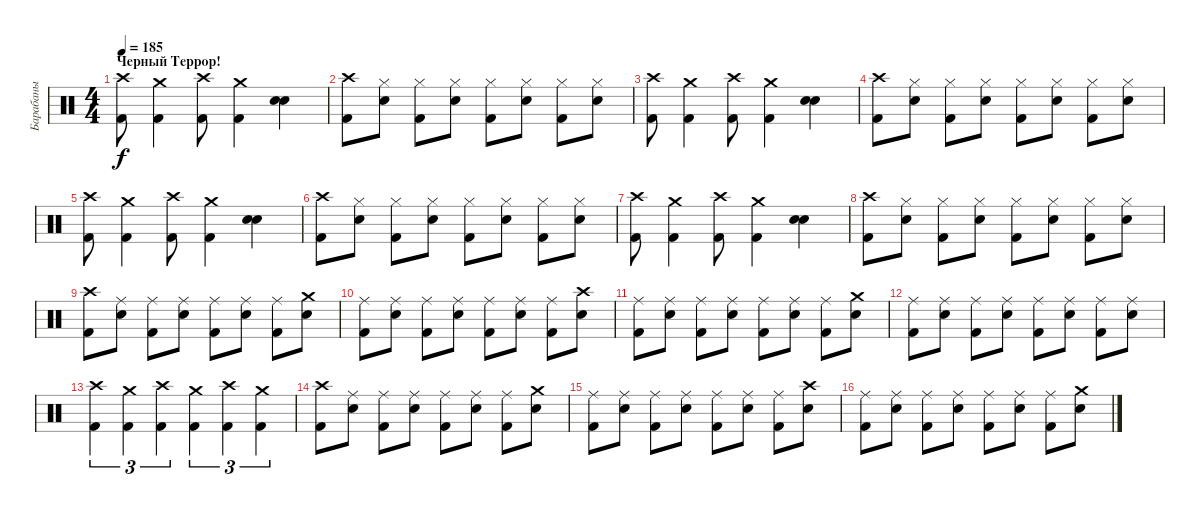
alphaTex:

\track ("Барабаны" "Барабаны") {instrument percussion}
\staff {score}
\articulation defaults
\ts (4 4)
\section ("" "Черный Террор!")
\tempo 185
\clef neutral
\ks c
("Crash high (hit)" "Kick (hit) 2").8{dy f} ("Crash medium (hit)" "Kick (hit) 2").4 ("Crash high (hit)" "Kick (hit) 2").8 ("Crash medium (hit)" "Kick (hit) 2").4 ("Snare (hit) 2" "Snare (hit) 2").4 |
("Crash high (hit)" "Kick (hit) 2").8 ("Hi-Hat (closed)" "Snare (hit) 2").8 ("Hi-Hat (closed)" "Kick (hit) 2").8 ("Hi-Hat (closed)" "Snare (hit) 2").8 ("Hi-Hat (closed)" "Kick (hit) 2").8 ("Hi-Hat (closed)" "Snare (hit) 2").8 ("Hi-Hat (closed)" "Kick (hit) 2").8 ("Hi-Hat (closed)" "Snare (hit) 2").8 |
("Crash high (hit)" "Kick (hit) 2").8 ("Crash medium (hit)" "Kick (hit) 2").4 ("Crash high (hit)" "Kick (hit) 2").8 ("Crash medium (hit)" "Kick (hit) 2").4 ("Snare (hit) 2" "Snare (hit) 2").4 |
("Crash high (hit)" "Kick (hit) 2").8 ("Hi-Hat (closed)" "Snare (hit) 2").8 ("Hi-Hat (closed)" "Kick (hit) 2").8 ("Hi-Hat (closed)" "Snare (hit) 2").8 ("Hi-Hat (closed)" "Kick (hit) 2").8 ("Hi-Hat (closed)" "Snare (hit) 2").8 ("Hi-Hat (closed)" "Kick (hit) 2").8 ("Hi-Hat (closed)" "Snare (hit) 2").8 |
("Crash high (hit)" "Kick (hit) 2").8 ("Crash medium (hit)" "Kick (hit) 2").4 ("Crash high (hit)" "Kick (hit) 2").8 ("Crash medium (hit)" "Kick (hit) 2").4 ("Snare (hit) 2" "Snare (hit) 2").4 |
("Crash high (hit)" "Kick (hit) 2").8 ("Hi-Hat (closed)" "Snare (hit) 2").8 ("Hi-Hat (closed)" "Kick (hit) 2").8 ("Hi-Hat (closed)" "Snare (hit) 2").8 ("Hi-Hat (closed)" "Kick (hit) 2").8 ("Hi-Hat (closed)" "Snare (hit) 2").8 ("Hi-Hat (closed)" "Kick (hit) 2").8 ("Hi-Hat (closed)" "Snare (hit) 2").8 |
("Crash high (hit)" "Kick (hit) 2").8 ("Crash medium (hit)" "Kick (hit) 2").4 ("Crash high (hit)" "Kick (hit) 2").8 ("Crash medium (hit)" "Kick (hit) 2").4 ("Snare (hit) 2" "Snare (hit) 2").4 |
("Crash high (hit)" "Kick (hit) 2").8 ("Hi-Hat (closed)" "Snare (hit) 2").8 ("Hi-Hat (closed)" "Kick (hit) 2").8 ("Hi-Hat (closed)" "Snare (hit) 2").8 ("Hi-Hat (closed)" "Kick (hit) 2").8 ("Hi-Hat (closed)" "Snare (hit) 2").8 ("Hi-Hat (closed)" "Kick (hit) 2").8 ("Hi-Hat (closed)" "Snare (hit) 2").8 |
("Crash high (hit)" "Kick (hit) 2").8 ("Ride (middle)" "Snare (hit) 2").8 ("Ride (middle)" "Kick (hit) 2").8 ("Ride (middle)" "Snare (hit) 2").8 ("Ride (middle)" "Kick (hit) 2").8 ("Ride (middle)" "Snare (hit) 2").8 ("Ride (middle)" "Kick (hit) 2").8 ("Crash medium (hit)" "Snare (hit) 2").8 |
("Ride (middle)" "Kick (hit) 2").8 ("Ride (middle)" "Snare (hit) 2").8 ("Ride (middle)" "Kick (hit) 2").8 ("Ride (middle)" "Snare (hit) 2").8 ("Ride (middle)" "Kick (hit) 2").8 ("Ride (middle)" "Snare (hit) 2").8 ("Ride (middle)" "Kick (hit) 2").8 ("Crash high (hit)" "Snare (hit) 2").8 |
("Ride (middle)" "Kick (hit) 2").8 ("Ride (middle)" "Snare (hit) 2").8 ("Ride (middle)" "Kick (hit) 2").8 ("Ride (middle)" "Snare (hit) 2").8 ("Ride (middle)" "Kick (hit) 2").8 ("Ride (middle)" "Snare (hit) 2").8 ("Ride (middle)" "Kick (hit) 2").8 ("Crash medium (hit)" "Snare (hit) 2").8 |
("Ride (middle)" "Kick (hit) 2").8 ("Ride (middle)" "Snare (hit) 2").8 ("Ride (middle)" "Kick (hit) 2").8 ("Ride (middle)" "Snare (hit) 2").8 ("Ride (middle)" "Kick (hit) 2").8 ("Ride (middle)" "Snare (hit) 2").8 ("Ride (middle)" "Kick (hit) 2").8 ("Ride (middle)" "Snare (hit) 2").8 |
("Crash high (hit)" "Kick (hit) 2").4{tu (3 2)} ("Crash medium (hit)" "Kick (hit) 2").4{tu (3 2)} ("Crash high (hit)" "Kick (hit) 2").4{tu (3 2)} ("Crash medium (hit)" "Kick (hit) 2").4{tu (3 2)} ("Crash high (hit)" "Kick (hit) 2").4{tu (3 2)} ("Crash medium (hit)" "Kick (hit) 2").4{tu (3 2)} |
("Crash high (hit)" "Kick (hit) 2").8 ("Ride (middle)" "Snare (hit) 2").8 ("Ride (middle)" "Kick (hit) 2").8 ("Ride (middle)" "Snare (hit) 2").8 ("Ride (middle)" "Kick (hit) 2").8 ("Ride (middle)" "Snare (hit) 2").8 ("Ride (middle)" "Kick (hit) 2").8 ("Crash medium (hit)" "Snare (hit) 2").8 |
("Ride (middle)" "Kick (hit) 2").8 ("Ride (middle)" "Snare (hit) 2").8 ("Ride (middle)" "Kick (hit) 2").8 ("Ride (middle)" "Snare (hit) 2").8 ("Ride (middle)" "Kick (hit) 2").8 ("Ride (middle)" "Snare (hit) 2").8 ("Ride (middle)" "Kick (hit) 2").8 ("Crash high (hit)" "Snare (hit) 2").8 |
("Ride (middle)" "Kick (hit) 2").8 ("Ride (middle)" "Snare (hit) 2").8 ("Ride (middle)" "Kick (hit) 2").8 ("Ride (middle)" "Snare (hit) 2").8 ("Ride (middle)" "Kick (hit) 2").8 ("Ride (middle)" "Snare (hit) 2").8 ("Ride (middle)" "Kick (hit) 2").8 ("Crash medium (hit)" "Snare (hit) 2").8
